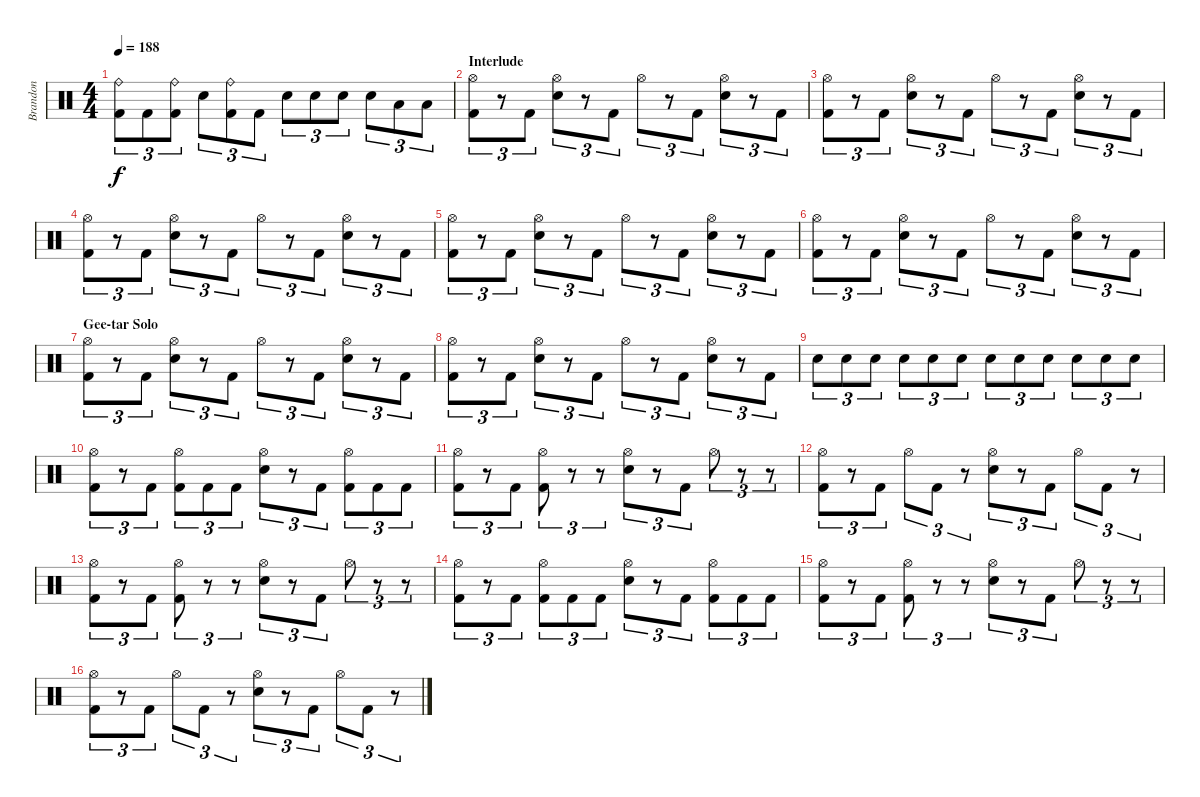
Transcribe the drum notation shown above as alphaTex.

\track ("Brandon" "Brandon") {instrument percussion}
\staff {score}
\articulation defaults
\ts (4 4)
\tempo 188
\clef neutral
\ks c
("Ride (bell)" "Kick (hit) 2").8{tu (3 2) dy f} "Kick (hit) 2".8{tu (3 2)} ("Ride (bell)" "Kick (hit) 2").8{tu (3 2)} "Electric Snare (hit)".8{tu (3 2)} ("Ride (bell)" "Kick (hit) 2").8{tu (3 2)} "Kick (hit) 2".8{tu (3 2)} "Electric Snare (hit)".8{tu (3 2)} "Electric Snare (hit)".8{tu (3 2)} "Electric Snare (hit)".8{tu (3 2)} "Electric Snare (hit)".8{tu (3 2)} "Low Tom (hit)".8{tu (3 2)} "Low Tom (hit)".8{tu (3 2)} |
\section ("" "Interlude")
("Hi-Hat (open)" "Kick (hit) 2").8{tu (3 2)} r.8{tu (3 2)} "Kick (hit) 2".8{tu (3 2)} ("Hi-Hat (open)" "Electric Snare (hit)").8{tu (3 2)} r.8{tu (3 2)} "Kick (hit) 2".8{tu (3 2)} "Hi-Hat (open)".8{tu (3 2)} r.8{tu (3 2)} "Kick (hit) 2".8{tu (3 2)} ("Hi-Hat (open)" "Electric Snare (hit)").8{tu (3 2)} r.8{tu (3 2)} "Kick (hit) 2".8{tu (3 2)} |
("Hi-Hat (open)" "Kick (hit) 2").8{tu (3 2)} r.8{tu (3 2)} "Kick (hit) 2".8{tu (3 2)} ("Hi-Hat (open)" "Electric Snare (hit)").8{tu (3 2)} r.8{tu (3 2)} "Kick (hit) 2".8{tu (3 2)} "Hi-Hat (open)".8{tu (3 2)} r.8{tu (3 2)} "Kick (hit) 2".8{tu (3 2)} ("Hi-Hat (open)" "Electric Snare (hit)").8{tu (3 2)} r.8{tu (3 2)} "Kick (hit) 2".8{tu (3 2)} |
("Hi-Hat (open)" "Kick (hit) 2").8{tu (3 2)} r.8{tu (3 2)} "Kick (hit) 2".8{tu (3 2)} ("Hi-Hat (open)" "Electric Snare (hit)").8{tu (3 2)} r.8{tu (3 2)} "Kick (hit) 2".8{tu (3 2)} "Hi-Hat (open)".8{tu (3 2)} r.8{tu (3 2)} "Kick (hit) 2".8{tu (3 2)} ("Hi-Hat (open)" "Electric Snare (hit)").8{tu (3 2)} r.8{tu (3 2)} "Kick (hit) 2".8{tu (3 2)} |
("Hi-Hat (open)" "Kick (hit) 2").8{tu (3 2)} r.8{tu (3 2)} "Kick (hit) 2".8{tu (3 2)} ("Hi-Hat (open)" "Electric Snare (hit)").8{tu (3 2)} r.8{tu (3 2)} "Kick (hit) 2".8{tu (3 2)} "Hi-Hat (open)".8{tu (3 2)} r.8{tu (3 2)} "Kick (hit) 2".8{tu (3 2)} ("Hi-Hat (open)" "Electric Snare (hit)").8{tu (3 2)} r.8{tu (3 2)} "Kick (hit) 2".8{tu (3 2)} |
("Hi-Hat (open)" "Kick (hit) 2").8{tu (3 2)} r.8{tu (3 2)} "Kick (hit) 2".8{tu (3 2)} ("Hi-Hat (open)" "Electric Snare (hit)").8{tu (3 2)} r.8{tu (3 2)} "Kick (hit) 2".8{tu (3 2)} "Hi-Hat (open)".8{tu (3 2)} r.8{tu (3 2)} "Kick (hit) 2".8{tu (3 2)} ("Hi-Hat (open)" "Electric Snare (hit)").8{tu (3 2)} r.8{tu (3 2)} "Kick (hit) 2".8{tu (3 2)} |
\section ("" "Gee-tar Solo")
("Hi-Hat (open)" "Kick (hit) 2").8{tu (3 2)} r.8{tu (3 2)} "Kick (hit) 2".8{tu (3 2)} ("Hi-Hat (open)" "Electric Snare (hit)").8{tu (3 2)} r.8{tu (3 2)} "Kick (hit) 2".8{tu (3 2)} "Hi-Hat (open)".8{tu (3 2)} r.8{tu (3 2)} "Kick (hit) 2".8{tu (3 2)} ("Hi-Hat (open)" "Electric Snare (hit)").8{tu (3 2)} r.8{tu (3 2)} "Kick (hit) 2".8{tu (3 2)} |
("Hi-Hat (open)" "Kick (hit) 2").8{tu (3 2)} r.8{tu (3 2)} "Kick (hit) 2".8{tu (3 2)} ("Hi-Hat (open)" "Electric Snare (hit)").8{tu (3 2)} r.8{tu (3 2)} "Kick (hit) 2".8{tu (3 2)} "Hi-Hat (open)".8{tu (3 2)} r.8{tu (3 2)} "Kick (hit) 2".8{tu (3 2)} ("Hi-Hat (open)" "Electric Snare (hit)").8{tu (3 2)} r.8{tu (3 2)} "Kick (hit) 2".8{tu (3 2)} |
"Electric Snare (hit)".8{tu (3 2)} "Electric Snare (hit)".8{tu (3 2)} "Electric Snare (hit)".8{tu (3 2)} "Electric Snare (hit)".8{tu (3 2)} "Electric Snare (hit)".8{tu (3 2)} "Electric Snare (hit)".8{tu (3 2)} "Electric Snare (hit)".8{tu (3 2)} "Electric Snare (hit)".8{tu (3 2)} "Electric Snare (hit)".8{tu (3 2)} "Electric Snare (hit)".8{tu (3 2)} "Electric Snare (hit)".8{tu (3 2)} "Electric Snare (hit)".8{tu (3 2)} |
("Hi-Hat (open)" "Kick (hit) 2").8{tu (3 2)} r.8{tu (3 2)} "Kick (hit) 2".8{tu (3 2)} ("Hi-Hat (open)" "Kick (hit) 2").8{tu (3 2)} "Kick (hit) 2".8{tu (3 2)} "Kick (hit) 2".8{tu (3 2)} ("Hi-Hat (open)" "Electric Snare (hit)").8{tu (3 2)} r.8{tu (3 2)} "Kick (hit) 2".8{tu (3 2)} ("Hi-Hat (open)" "Kick (hit) 2").8{tu (3 2)} "Kick (hit) 2".8{tu (3 2)} "Kick (hit) 2".8{tu (3 2)} |
("Hi-Hat (open)" "Kick (hit) 2").8{tu (3 2)} r.8{tu (3 2)} "Kick (hit) 2".8{tu (3 2)} ("Hi-Hat (open)" "Kick (hit) 2").8{tu (3 2)} r.8{tu (3 2)} r.8{tu (3 2)} ("Hi-Hat (open)" "Electric Snare (hit)").8{tu (3 2)} r.8{tu (3 2)} "Kick (hit) 2".8{tu (3 2)} "Hi-Hat (open)".8{tu (3 2)} r.8{tu (3 2)} r.8{tu (3 2)} |
("Hi-Hat (open)" "Kick (hit) 2").8{tu (3 2)} r.8{tu (3 2)} "Kick (hit) 2".8{tu (3 2)} "Hi-Hat (open)".8{tu (3 2)} "Kick (hit) 2".8{tu (3 2)} r.8{tu (3 2)} ("Hi-Hat (open)" "Electric Snare (hit)").8{tu (3 2)} r.8{tu (3 2)} "Kick (hit) 2".8{tu (3 2)} "Hi-Hat (open)".8{tu (3 2)} "Kick (hit) 2".8{tu (3 2)} r.8{tu (3 2)} |
("Hi-Hat (open)" "Kick (hit) 2").8{tu (3 2)} r.8{tu (3 2)} "Kick (hit) 2".8{tu (3 2)} ("Hi-Hat (open)" "Kick (hit) 2").8{tu (3 2)} r.8{tu (3 2)} r.8{tu (3 2)} ("Hi-Hat (open)" "Electric Snare (hit)").8{tu (3 2)} r.8{tu (3 2)} "Kick (hit) 2".8{tu (3 2)} "Hi-Hat (open)".8{tu (3 2)} r.8{tu (3 2)} r.8{tu (3 2)} |
("Hi-Hat (open)" "Kick (hit) 2").8{tu (3 2)} r.8{tu (3 2)} "Kick (hit) 2".8{tu (3 2)} ("Hi-Hat (open)" "Kick (hit) 2").8{tu (3 2)} "Kick (hit) 2".8{tu (3 2)} "Kick (hit) 2".8{tu (3 2)} ("Hi-Hat (open)" "Electric Snare (hit)").8{tu (3 2)} r.8{tu (3 2)} "Kick (hit) 2".8{tu (3 2)} ("Hi-Hat (open)" "Kick (hit) 2").8{tu (3 2)} "Kick (hit) 2".8{tu (3 2)} "Kick (hit) 2".8{tu (3 2)} |
("Hi-Hat (open)" "Kick (hit) 2").8{tu (3 2)} r.8{tu (3 2)} "Kick (hit) 2".8{tu (3 2)} ("Hi-Hat (open)" "Kick (hit) 2").8{tu (3 2)} r.8{tu (3 2)} r.8{tu (3 2)} ("Hi-Hat (open)" "Electric Snare (hit)").8{tu (3 2)} r.8{tu (3 2)} "Kick (hit) 2".8{tu (3 2)} "Hi-Hat (open)".8{tu (3 2)} r.8{tu (3 2)} r.8{tu (3 2)} |
("Hi-Hat (open)" "Kick (hit) 2").8{tu (3 2)} r.8{tu (3 2)} "Kick (hit) 2".8{tu (3 2)} "Hi-Hat (open)".8{tu (3 2)} "Kick (hit) 2".8{tu (3 2)} r.8{tu (3 2)} ("Hi-Hat (open)" "Electric Snare (hit)").8{tu (3 2)} r.8{tu (3 2)} "Kick (hit) 2".8{tu (3 2)} "Hi-Hat (open)".8{tu (3 2)} "Kick (hit) 2".8{tu (3 2)} r.8{tu (3 2)}
